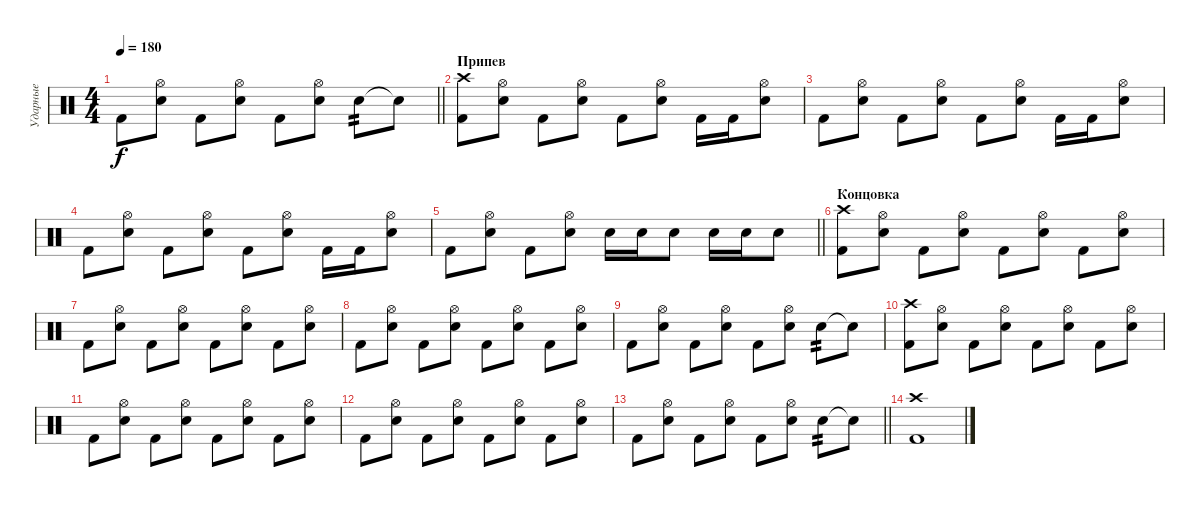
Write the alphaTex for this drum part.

\track ("Ударные" "Ударные") {instrument percussion}
\staff {score}
\articulation defaults
\ts (4 4)
\tempo 180
\clef neutral
\barLineRight lightlight
\ks c "Kick (hit) 2".8{dy f}
("Hi-Hat (open)" "Electric Snare (hit)").8 "Kick (hit) 2".8 ("Hi-Hat (open)" "Electric Snare (hit)").8 "Kick (hit) 2".8 ("Hi-Hat (open)" "Electric Snare (hit)").8 "Electric Snare (hit)".8{tp 2} "Electric Snare (hit)"{t}.8 |
\section ("" "Припев")
("Crash high (hit)" "Kick (hit) 2").8 ("Hi-Hat (open)" "Electric Snare (hit)").8 "Kick (hit) 2".8 ("Hi-Hat (open)" "Electric Snare (hit)").8 "Kick (hit) 2".8 ("Hi-Hat (open)" "Electric Snare (hit)").8 "Kick (hit) 2".16 "Kick (hit) 2".16 ("Hi-Hat (open)" "Electric Snare (hit)").8 |
"Kick (hit) 2".8 ("Hi-Hat (open)" "Electric Snare (hit)").8 "Kick (hit) 2".8 ("Hi-Hat (open)" "Electric Snare (hit)").8 "Kick (hit) 2".8 ("Hi-Hat (open)" "Electric Snare (hit)").8 "Kick (hit) 2".16 "Kick (hit) 2".16 ("Hi-Hat (open)" "Electric Snare (hit)").8 |
"Kick (hit) 2".8 ("Hi-Hat (open)" "Electric Snare (hit)").8 "Kick (hit) 2".8 ("Hi-Hat (open)" "Electric Snare (hit)").8 "Kick (hit) 2".8 ("Hi-Hat (open)" "Electric Snare (hit)").8 "Kick (hit) 2".16 "Kick (hit) 2".16 ("Hi-Hat (open)" "Electric Snare (hit)").8 |
\barLineRight lightlight "Kick (hit) 2".8
("Hi-Hat (open)" "Electric Snare (hit)").8 "Kick (hit) 2".8 ("Hi-Hat (open)" "Electric Snare (hit)").8 "Electric Snare (hit)".16 "Electric Snare (hit)".16 "Electric Snare (hit)".8 "Electric Snare (hit)".16 "Electric Snare (hit)".16 "Electric Snare (hit)".8 |
\section ("" "Концовка")
("Crash high (hit)" "Kick (hit) 2").8 ("Hi-Hat (open)" "Electric Snare (hit)").8 "Kick (hit) 2".8 ("Hi-Hat (open)" "Electric Snare (hit)").8 "Kick (hit) 2".8 ("Hi-Hat (open)" "Electric Snare (hit)").8 "Kick (hit) 2".8 ("Hi-Hat (open)" "Electric Snare (hit)").8 |
"Kick (hit) 2".8 ("Hi-Hat (open)" "Electric Snare (hit)").8 "Kick (hit) 2".8 ("Hi-Hat (open)" "Electric Snare (hit)").8 "Kick (hit) 2".8 ("Hi-Hat (open)" "Electric Snare (hit)").8 "Kick (hit) 2".8 ("Hi-Hat (open)" "Electric Snare (hit)").8 |
"Kick (hit) 2".8 ("Hi-Hat (open)" "Electric Snare (hit)").8 "Kick (hit) 2".8 ("Hi-Hat (open)" "Electric Snare (hit)").8 "Kick (hit) 2".8 ("Hi-Hat (open)" "Electric Snare (hit)").8 "Kick (hit) 2".8 ("Hi-Hat (open)" "Electric Snare (hit)").8 |
"Kick (hit) 2".8 ("Hi-Hat (open)" "Electric Snare (hit)").8 "Kick (hit) 2".8 ("Hi-Hat (open)" "Electric Snare (hit)").8 "Kick (hit) 2".8 ("Hi-Hat (open)" "Electric Snare (hit)").8 "Electric Snare (hit)".8{tp 2} "Electric Snare (hit)"{t}.8 |
("Crash high (hit)" "Kick (hit) 2").8 ("Hi-Hat (open)" "Electric Snare (hit)").8 "Kick (hit) 2".8 ("Hi-Hat (open)" "Electric Snare (hit)").8 "Kick (hit) 2".8 ("Hi-Hat (open)" "Electric Snare (hit)").8 "Kick (hit) 2".8 ("Hi-Hat (open)" "Electric Snare (hit)").8 |
"Kick (hit) 2".8 ("Hi-Hat (open)" "Electric Snare (hit)").8 "Kick (hit) 2".8 ("Hi-Hat (open)" "Electric Snare (hit)").8 "Kick (hit) 2".8 ("Hi-Hat (open)" "Electric Snare (hit)").8 "Kick (hit) 2".8 ("Hi-Hat (open)" "Electric Snare (hit)").8 |
"Kick (hit) 2".8 ("Hi-Hat (open)" "Electric Snare (hit)").8 "Kick (hit) 2".8 ("Hi-Hat (open)" "Electric Snare (hit)").8 "Kick (hit) 2".8 ("Hi-Hat (open)" "Electric Snare (hit)").8 "Kick (hit) 2".8 ("Hi-Hat (open)" "Electric Snare (hit)").8 |
\barLineRight lightlight "Kick (hit) 2".8
("Hi-Hat (open)" "Electric Snare (hit)").8 "Kick (hit) 2".8 ("Hi-Hat (open)" "Electric Snare (hit)").8 "Kick (hit) 2".8 ("Hi-Hat (open)" "Electric Snare (hit)").8 "Electric Snare (hit)".8{tp 2} "Electric Snare (hit)"{t}.8 |
("Crash high (hit)" "Kick (hit) 2").1
